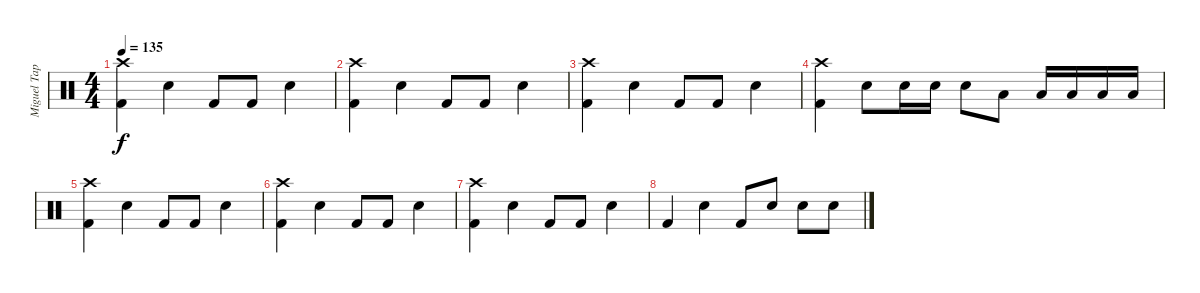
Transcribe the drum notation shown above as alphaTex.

\track ("Miguel Tapia" "Miguel Tap") {instrument percussion}
\staff {score}
\articulation defaults
\ts (4 4)
\tempo 135
\clef neutral
\ks c
("Crash high (hit)" "Kick (hit) 2").4{dy f} "Snare (hit) 2".4 "Kick (hit) 2".8 "Kick (hit) 2".8 "Snare (hit) 2".4 |
("Crash high (hit)" "Kick (hit) 2").4 "Snare (hit) 2".4 "Kick (hit) 2".8 "Kick (hit) 2".8 "Snare (hit) 2".4 |
("Crash high (hit)" "Kick (hit) 2").4 "Snare (hit) 2".4 "Kick (hit) 2".8 "Kick (hit) 2".8 "Snare (hit) 2".4 |
("Crash high (hit)" "Kick (hit) 2").4 "Snare (hit) 2".8 "Snare (hit)"{x}.16 "Snare (hit) 2".16 "Snare (hit) 2".8 "Low Tom (hit)".8 "Low Floor Tom (hit)".16 "Low Tom (hit)".16 "Low Floor Tom (hit)".16 "Low Tom (hit)".16 |
("Crash high (hit)" "Kick (hit) 2").4 "Snare (hit) 2".4 "Kick (hit) 2".8 "Kick (hit) 2".8 "Snare (hit) 2".4 |
("Crash high (hit)" "Kick (hit) 2").4 "Snare (hit) 2".4 "Kick (hit) 2".8 "Kick (hit) 2".8 "Snare (hit) 2".4 |
("Crash high (hit)" "Kick (hit) 2").4 "Snare (hit) 2".4 "Kick (hit) 2".8 "Kick (hit) 2".8 "Snare (hit) 2".4 |
"Kick (hit) 2".4 "Snare (hit) 2".4 "Kick (hit) 2".8 "Snare (hit) 2".8 "Snare (hit) 2".8 "Snare (hit) 2".8
